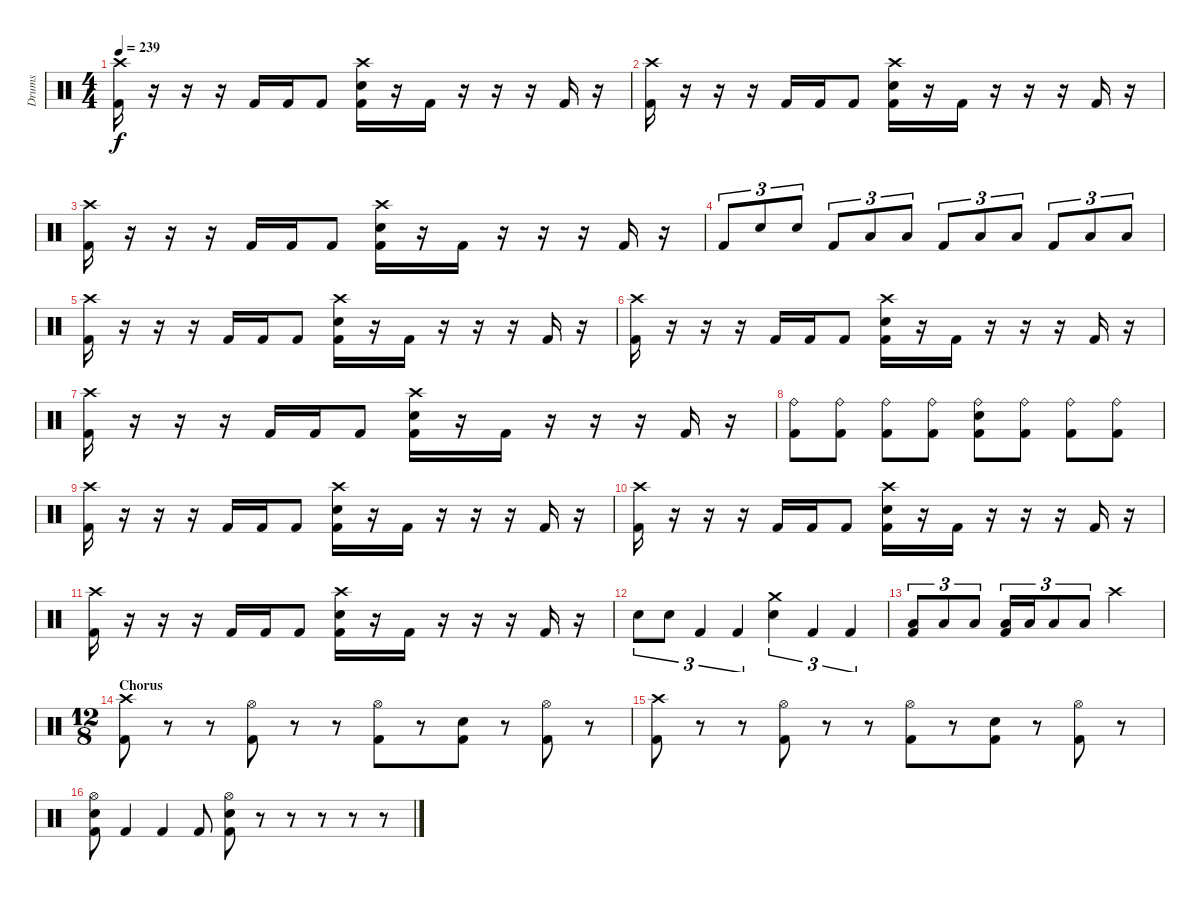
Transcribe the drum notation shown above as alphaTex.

\track ("Drums" "Drums") {instrument percussion}
\staff {score}
\articulation defaults
\ts (4 4)
\tempo 239
\clef neutral
\ks c
("Crash high (hit)" "Kick (hit) 2").16{dy f} r.16 r.16 r.16 "Kick (hit) 2".16 "Kick (hit) 2".16 "Kick (hit) 2".8 ("Crash high (hit)" "Electric Snare (hit)" "Kick (hit) 2").16 r.16 "Kick (hit) 2".16 r.16 r.16 r.16 "Kick (hit) 2".16 r.16 |
("Crash high (hit)" "Kick (hit) 2").16 r.16 r.16 r.16 "Kick (hit) 2".16 "Kick (hit) 2".16 "Kick (hit) 2".8 ("Crash high (hit)" "Electric Snare (hit)" "Kick (hit) 2").16 r.16 "Kick (hit) 2".16 r.16 r.16 r.16 "Kick (hit) 2".16 r.16 |
("Crash high (hit)" "Kick (hit) 2").16 r.16 r.16 r.16 "Kick (hit) 2".16 "Kick (hit) 2".16 "Kick (hit) 2".8 ("Crash high (hit)" "Electric Snare (hit)" "Kick (hit) 2").16 r.16 "Kick (hit) 2".16 r.16 r.16 r.16 "Kick (hit) 2".16 r.16 |
"Kick (hit) 2".8{tu (3 2)} "Electric Snare (hit)".8{tu (3 2)} "Electric Snare (hit)".8{tu (3 2)} "Kick (hit) 2".8{tu (3 2)} "Low Tom (hit)".8{tu (3 2)} "Low Tom (hit)".8{tu (3 2)} "Kick (hit) 2".8{tu (3 2)} "Low Tom (hit)".8{tu (3 2)} "Low Tom (hit)".8{tu (3 2)} "Kick (hit) 2".8{tu (3 2)} "Low Floor Tom (hit)".8{tu (3 2)} "Low Floor Tom (hit)".8{tu (3 2)} |
("Crash high (hit)" "Kick (hit) 2").16 r.16 r.16 r.16 "Kick (hit) 2".16 "Kick (hit) 2".16 "Kick (hit) 2".8 ("Crash high (hit)" "Electric Snare (hit)" "Kick (hit) 2").16 r.16 "Kick (hit) 2".16 r.16 r.16 r.16 "Kick (hit) 2".16 r.16 |
("Crash high (hit)" "Kick (hit) 2").16 r.16 r.16 r.16 "Kick (hit) 2".16 "Kick (hit) 2".16 "Kick (hit) 2".8 ("Crash high (hit)" "Electric Snare (hit)" "Kick (hit) 2").16 r.16 "Kick (hit) 2".16 r.16 r.16 r.16 "Kick (hit) 2".16 r.16 |
("Crash high (hit)" "Kick (hit) 2").16 r.16 r.16 r.16 "Kick (hit) 2".16 "Kick (hit) 2".16 "Kick (hit) 2".8 ("Crash high (hit)" "Electric Snare (hit)" "Kick (hit) 2").16 r.16 "Kick (hit) 2".16 r.16 r.16 r.16 "Kick (hit) 2".16 r.16 |
("Ride (bell)" "Kick (hit) 2").8 ("Ride (bell)" "Kick (hit) 2").8 ("Ride (bell)" "Kick (hit) 2").8 ("Ride (bell)" "Kick (hit) 2").8 ("Ride (bell)" "Electric Snare (hit)" "Kick (hit) 2").8 ("Ride (bell)" "Kick (hit) 2").8 ("Ride (bell)" "Kick (hit) 2").8 ("Ride (bell)" "Kick (hit) 2").8 |
("Crash high (hit)" "Kick (hit) 2").16 r.16 r.16 r.16 "Kick (hit) 2".16 "Kick (hit) 2".16 "Kick (hit) 2".8 ("Crash high (hit)" "Electric Snare (hit)" "Kick (hit) 2").16 r.16 "Kick (hit) 2".16 r.16 r.16 r.16 "Kick (hit) 2".16 r.16 |
("Crash high (hit)" "Kick (hit) 2").16 r.16 r.16 r.16 "Kick (hit) 2".16 "Kick (hit) 2".16 "Kick (hit) 2".8 ("Crash high (hit)" "Electric Snare (hit)" "Kick (hit) 2").16 r.16 "Kick (hit) 2".16 r.16 r.16 r.16 "Kick (hit) 2".16 r.16 |
("Crash high (hit)" "Kick (hit) 2").16 r.16 r.16 r.16 "Kick (hit) 2".16 "Kick (hit) 2".16 "Kick (hit) 2".8 ("Crash high (hit)" "Electric Snare (hit)" "Kick (hit) 2").16 r.16 "Kick (hit) 2".16 r.16 r.16 r.16 "Kick (hit) 2".16 r.16 |
"Electric Snare (hit)".8{tu (3 2)} "Electric Snare (hit)".8{tu (3 2)} "Kick (hit) 2".4{tu (3 2)} "Kick (hit) 2".4{tu (3 2)} ("Crash medium (hit)" "Electric Snare (hit)").4{tu (3 2)} "Kick (hit) 2".4{tu (3 2)} "Kick (hit) 2".4{tu (3 2)} |
("Low Tom (hit)" "Kick (hit) 2").8{tu (3 2)} "Low Tom (hit)".8{tu (3 2)} "Low Tom (hit)".8{tu (3 2)} ("Low Floor Tom (hit)" "Kick (hit) 2").16{tu (3 2)} "Low Floor Tom (hit)".16{tu (3 2)} "Low Floor Tom (hit)".8{tu (3 2)} "Low Floor Tom (hit)".8{tu (3 2)} "Crash high (hit)".2 |
\ts (12 8)
\section ("" "Chorus")
("Crash high (hit)" "Kick (hit) 2").8 r.8 r.8 ("Hi-Hat (open)" "Kick (hit) 2").8 r.8 r.8 ("Hi-Hat (open)" "Kick (hit) 2").8 r.8 ("Electric Snare (hit)" "Kick (hit) 2").8 r.8 ("Hi-Hat (open)" "Kick (hit) 2").8 r.8 |
("Crash high (hit)" "Kick (hit) 2").8 r.8 r.8 ("Hi-Hat (open)" "Kick (hit) 2").8 r.8 r.8 ("Hi-Hat (open)" "Kick (hit) 2").8 r.8 ("Electric Snare (hit)" "Kick (hit) 2").8 r.8 ("Hi-Hat (open)" "Kick (hit) 2").8 r.8 |
("Hi-Hat (open)" "Electric Snare (hit)" "Kick (hit) 2").8 "Kick (hit) 2".4 "Kick (hit) 2".4 "Kick (hit) 2".8 ("Hi-Hat (open)" "Electric Snare (hit)" "Kick (hit) 2").8 r.8 r.8 r.8 r.8 r.8
